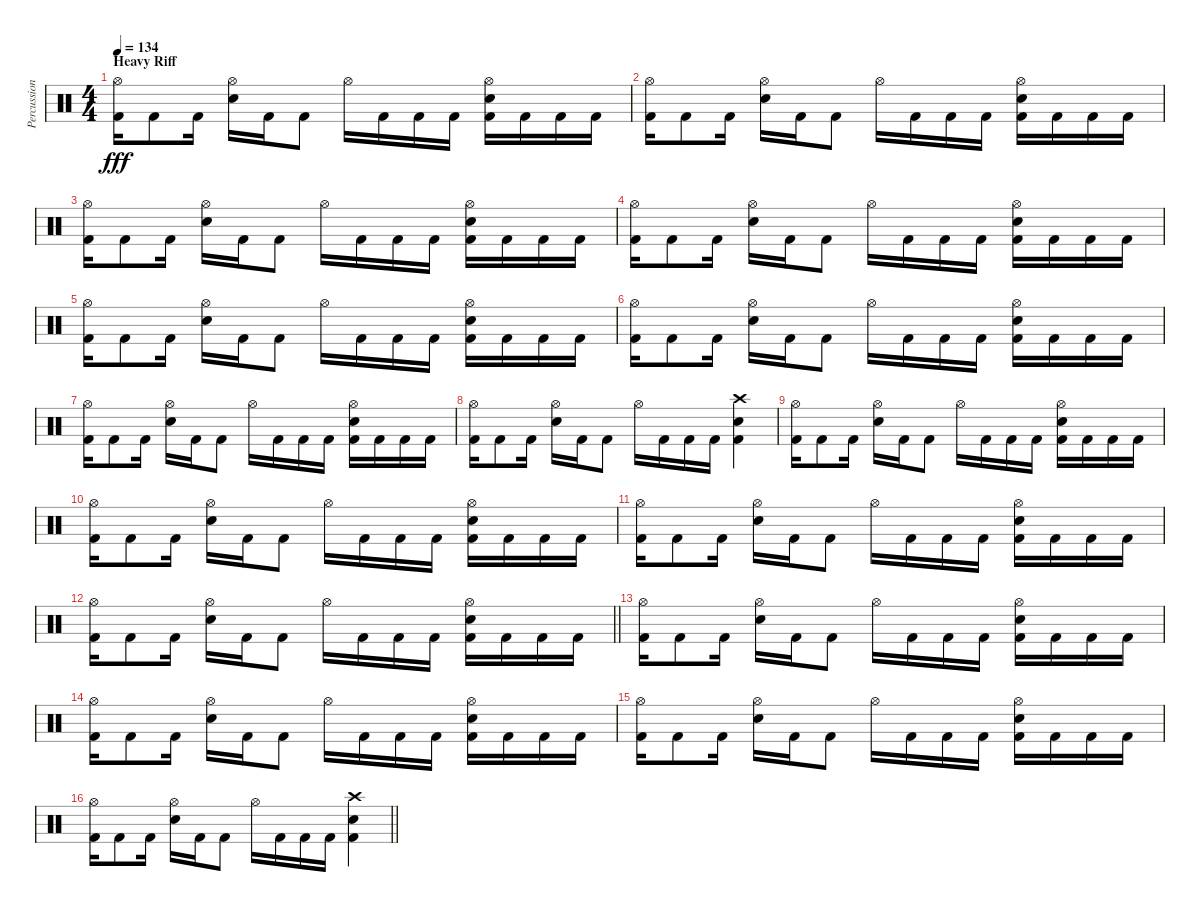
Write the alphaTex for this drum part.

\track ("Percussion" "Percussion") {instrument percussion}
\staff {score}
\articulation defaults
\ts (4 4)
\section ("" "Heavy Riff")
\tempo 134
\clef neutral
\ks c
("Hi-Hat (open)" "Kick (hit) 2").16{dy fff} "Kick (hit) 2".8 "Kick (hit) 2".16 ("Hi-Hat (open)" "Electric Snare (hit)").16 "Kick (hit) 2".16 "Kick (hit) 2".8 "Hi-Hat (open)".16 "Kick (hit) 2".16 "Kick (hit) 2".16 "Kick (hit) 2".16 ("Hi-Hat (open)" "Electric Snare (hit)" "Kick (hit) 2").16 "Kick (hit) 2".16 "Kick (hit) 2".16 "Kick (hit) 2".16 |
("Hi-Hat (open)" "Kick (hit) 2").16 "Kick (hit) 2".8 "Kick (hit) 2".16 ("Hi-Hat (open)" "Electric Snare (hit)").16 "Kick (hit) 2".16 "Kick (hit) 2".8 "Hi-Hat (open)".16 "Kick (hit) 2".16 "Kick (hit) 2".16 "Kick (hit) 2".16 ("Hi-Hat (open)" "Electric Snare (hit)" "Kick (hit) 2").16 "Kick (hit) 2".16 "Kick (hit) 2".16 "Kick (hit) 2".16 |
("Hi-Hat (open)" "Kick (hit) 2").16 "Kick (hit) 2".8 "Kick (hit) 2".16 ("Hi-Hat (open)" "Electric Snare (hit)").16 "Kick (hit) 2".16 "Kick (hit) 2".8 "Hi-Hat (open)".16 "Kick (hit) 2".16 "Kick (hit) 2".16 "Kick (hit) 2".16 ("Hi-Hat (open)" "Electric Snare (hit)" "Kick (hit) 2").16 "Kick (hit) 2".16 "Kick (hit) 2".16 "Kick (hit) 2".16 |
("Hi-Hat (open)" "Kick (hit) 2").16 "Kick (hit) 2".8 "Kick (hit) 2".16 ("Hi-Hat (open)" "Electric Snare (hit)").16 "Kick (hit) 2".16 "Kick (hit) 2".8 "Hi-Hat (open)".16 "Kick (hit) 2".16 "Kick (hit) 2".16 "Kick (hit) 2".16 ("Hi-Hat (open)" "Electric Snare (hit)" "Kick (hit) 2").16 "Kick (hit) 2".16 "Kick (hit) 2".16 "Kick (hit) 2".16 |
("Hi-Hat (open)" "Kick (hit) 2").16 "Kick (hit) 2".8 "Kick (hit) 2".16 ("Hi-Hat (open)" "Electric Snare (hit)").16 "Kick (hit) 2".16 "Kick (hit) 2".8 "Hi-Hat (open)".16 "Kick (hit) 2".16 "Kick (hit) 2".16 "Kick (hit) 2".16 ("Hi-Hat (open)" "Electric Snare (hit)" "Kick (hit) 2").16 "Kick (hit) 2".16 "Kick (hit) 2".16 "Kick (hit) 2".16 |
("Hi-Hat (open)" "Kick (hit) 2").16 "Kick (hit) 2".8 "Kick (hit) 2".16 ("Hi-Hat (open)" "Electric Snare (hit)").16 "Kick (hit) 2".16 "Kick (hit) 2".8 "Hi-Hat (open)".16 "Kick (hit) 2".16 "Kick (hit) 2".16 "Kick (hit) 2".16 ("Hi-Hat (open)" "Electric Snare (hit)" "Kick (hit) 2").16 "Kick (hit) 2".16 "Kick (hit) 2".16 "Kick (hit) 2".16 |
("Hi-Hat (open)" "Kick (hit) 2").16 "Kick (hit) 2".8 "Kick (hit) 2".16 ("Hi-Hat (open)" "Electric Snare (hit)").16 "Kick (hit) 2".16 "Kick (hit) 2".8 "Hi-Hat (open)".16 "Kick (hit) 2".16 "Kick (hit) 2".16 "Kick (hit) 2".16 ("Hi-Hat (open)" "Electric Snare (hit)" "Kick (hit) 2").16 "Kick (hit) 2".16 "Kick (hit) 2".16 "Kick (hit) 2".16 |
("Hi-Hat (open)" "Kick (hit) 2").16 "Kick (hit) 2".8 "Kick (hit) 2".16 ("Hi-Hat (open)" "Electric Snare (hit)").16 "Kick (hit) 2".16 "Kick (hit) 2".8 "Hi-Hat (open)".16 "Kick (hit) 2".16 "Kick (hit) 2".16 "Kick (hit) 2".16 ("Crash high (hit)" "Electric Snare (hit)" "Kick (hit) 2").4 |
("Hi-Hat (open)" "Kick (hit) 2").16 "Kick (hit) 2".8 "Kick (hit) 2".16 ("Hi-Hat (open)" "Electric Snare (hit)").16 "Kick (hit) 2".16 "Kick (hit) 2".8 "Hi-Hat (open)".16 "Kick (hit) 2".16 "Kick (hit) 2".16 "Kick (hit) 2".16 ("Hi-Hat (open)" "Electric Snare (hit)" "Kick (hit) 2").16 "Kick (hit) 2".16 "Kick (hit) 2".16 "Kick (hit) 2".16 |
("Hi-Hat (open)" "Kick (hit) 2").16 "Kick (hit) 2".8 "Kick (hit) 2".16 ("Hi-Hat (open)" "Electric Snare (hit)").16 "Kick (hit) 2".16 "Kick (hit) 2".8 "Hi-Hat (open)".16 "Kick (hit) 2".16 "Kick (hit) 2".16 "Kick (hit) 2".16 ("Hi-Hat (open)" "Electric Snare (hit)" "Kick (hit) 2").16 "Kick (hit) 2".16 "Kick (hit) 2".16 "Kick (hit) 2".16 |
("Hi-Hat (open)" "Kick (hit) 2").16 "Kick (hit) 2".8 "Kick (hit) 2".16 ("Hi-Hat (open)" "Electric Snare (hit)").16 "Kick (hit) 2".16 "Kick (hit) 2".8 "Hi-Hat (open)".16 "Kick (hit) 2".16 "Kick (hit) 2".16 "Kick (hit) 2".16 ("Hi-Hat (open)" "Electric Snare (hit)" "Kick (hit) 2").16 "Kick (hit) 2".16 "Kick (hit) 2".16 "Kick (hit) 2".16 |
\barLineRight lightlight
("Hi-Hat (open)" "Kick (hit) 2").16 "Kick (hit) 2".8 "Kick (hit) 2".16 ("Hi-Hat (open)" "Electric Snare (hit)").16 "Kick (hit) 2".16 "Kick (hit) 2".8 "Hi-Hat (open)".16 "Kick (hit) 2".16 "Kick (hit) 2".16 "Kick (hit) 2".16 ("Hi-Hat (open)" "Electric Snare (hit)" "Kick (hit) 2").16 "Kick (hit) 2".16 "Kick (hit) 2".16 "Kick (hit) 2".16 |
("Hi-Hat (open)" "Kick (hit) 2").16 "Kick (hit) 2".8 "Kick (hit) 2".16 ("Hi-Hat (open)" "Electric Snare (hit)").16 "Kick (hit) 2".16 "Kick (hit) 2".8 "Hi-Hat (open)".16 "Kick (hit) 2".16 "Kick (hit) 2".16 "Kick (hit) 2".16 ("Hi-Hat (open)" "Electric Snare (hit)" "Kick (hit) 2").16 "Kick (hit) 2".16 "Kick (hit) 2".16 "Kick (hit) 2".16 |
("Hi-Hat (open)" "Kick (hit) 2").16 "Kick (hit) 2".8 "Kick (hit) 2".16 ("Hi-Hat (open)" "Electric Snare (hit)").16 "Kick (hit) 2".16 "Kick (hit) 2".8 "Hi-Hat (open)".16 "Kick (hit) 2".16 "Kick (hit) 2".16 "Kick (hit) 2".16 ("Hi-Hat (open)" "Electric Snare (hit)" "Kick (hit) 2").16 "Kick (hit) 2".16 "Kick (hit) 2".16 "Kick (hit) 2".16 |
("Hi-Hat (open)" "Kick (hit) 2").16 "Kick (hit) 2".8 "Kick (hit) 2".16 ("Hi-Hat (open)" "Electric Snare (hit)").16 "Kick (hit) 2".16 "Kick (hit) 2".8 "Hi-Hat (open)".16 "Kick (hit) 2".16 "Kick (hit) 2".16 "Kick (hit) 2".16 ("Hi-Hat (open)" "Electric Snare (hit)" "Kick (hit) 2").16 "Kick (hit) 2".16 "Kick (hit) 2".16 "Kick (hit) 2".16 |
\barLineRight lightlight
("Hi-Hat (open)" "Kick (hit) 2").16 "Kick (hit) 2".8 "Kick (hit) 2".16 ("Hi-Hat (open)" "Electric Snare (hit)").16 "Kick (hit) 2".16 "Kick (hit) 2".8 "Hi-Hat (open)".16 "Kick (hit) 2".16 "Kick (hit) 2".16 "Kick (hit) 2".16 ("Crash high (hit)" "Electric Snare (hit)" "Kick (hit) 2").4
